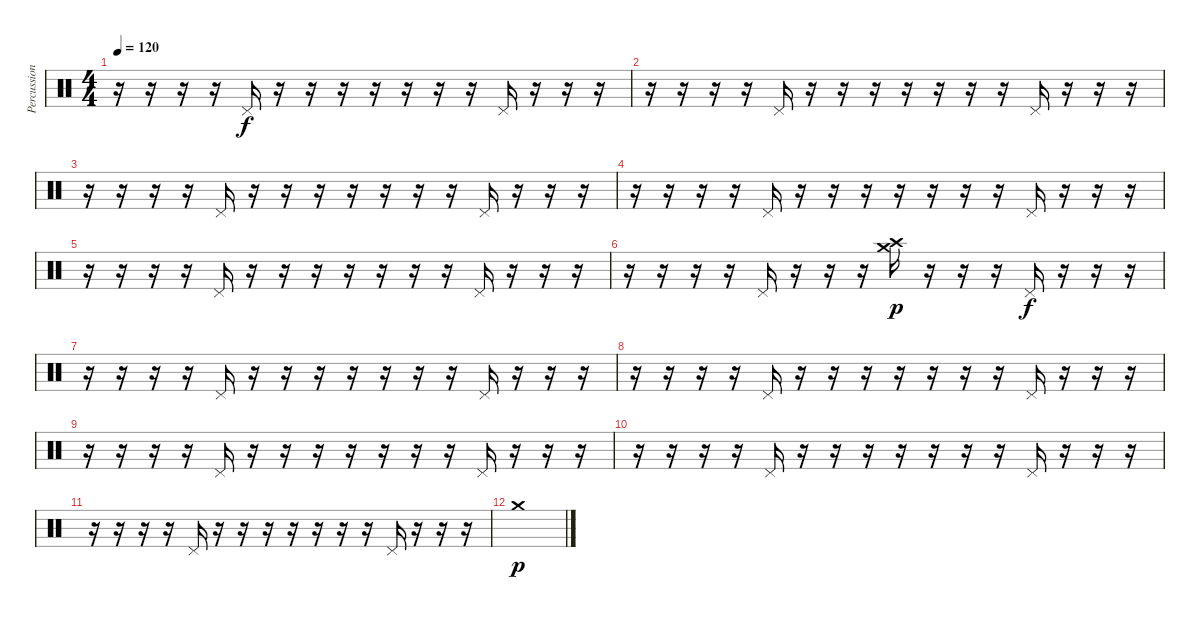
\track ("Percussion" "Percussion") {instrument percussion}
\staff {score}
\articulation defaults
\ts (4 4)
\tempo 120
\clef neutral
\ks c
r.16{dy f} r.16 r.16 r.16 "Pedal Hi-Hat (hit)".16 r.16 r.16 r.16 r.16 r.16 r.16 r.16 "Pedal Hi-Hat (hit)".16 r.16 r.16 r.16 |
r.16 r.16 r.16 r.16 "Pedal Hi-Hat (hit)".16 r.16 r.16 r.16 r.16 r.16 r.16 r.16 "Pedal Hi-Hat (hit)".16 r.16 r.16 r.16 |
r.16 r.16 r.16 r.16 "Pedal Hi-Hat (hit)".16 r.16 r.16 r.16 r.16 r.16 r.16 r.16 "Pedal Hi-Hat (hit)".16 r.16 r.16 r.16 |
r.16 r.16 r.16 r.16 "Pedal Hi-Hat (hit)".16 r.16 r.16 r.16 r.16 r.16 r.16 r.16 "Pedal Hi-Hat (hit)".16 r.16 r.16 r.16 |
r.16 r.16 r.16 r.16 "Pedal Hi-Hat (hit)".16 r.16 r.16 r.16 r.16 r.16 r.16 r.16 "Pedal Hi-Hat (hit)".16 r.16 r.16 r.16 |
r.16 r.16 r.16 r.16 "Pedal Hi-Hat (hit)".16 r.16 r.16 r.16 ("Crash high (hit)" "Crash medium (hit)").16{dy p} r.16 r.16 r.16 "Pedal Hi-Hat (hit)".16{dy f} r.16 r.16 r.16 |
r.16 r.16 r.16 r.16 "Pedal Hi-Hat (hit)".16 r.16 r.16 r.16 r.16 r.16 r.16 r.16 "Pedal Hi-Hat (hit)".16 r.16 r.16 r.16 |
r.16 r.16 r.16 r.16 "Pedal Hi-Hat (hit)".16 r.16 r.16 r.16 r.16 r.16 r.16 r.16 "Pedal Hi-Hat (hit)".16 r.16 r.16 r.16 |
r.16 r.16 r.16 r.16 "Pedal Hi-Hat (hit)".16 r.16 r.16 r.16 r.16 r.16 r.16 r.16 "Pedal Hi-Hat (hit)".16 r.16 r.16 r.16 |
r.16 r.16 r.16 r.16 "Pedal Hi-Hat (hit)".16 r.16 r.16 r.16 r.16 r.16 r.16 r.16 "Pedal Hi-Hat (hit)".16 r.16 r.16 r.16 |
r.16 r.16 r.16 r.16 "Pedal Hi-Hat (hit)".16 r.16 r.16 r.16 r.16 r.16 r.16 r.16 "Pedal Hi-Hat (hit)".16 r.16 r.16 r.16 |
"Crash medium (hit)".1{dy p}
